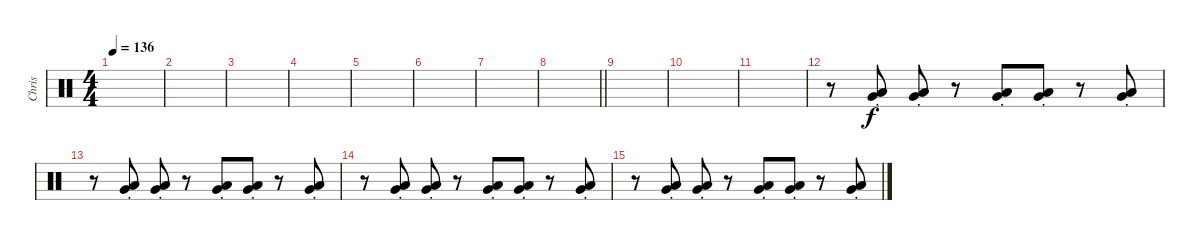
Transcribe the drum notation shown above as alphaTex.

\track ("Chris" "Chris") {instrument percussion}
\staff {score}
\articulation defaults
\ts (4 4)
\tempo 136
\clef neutral
\ks c
|
|
|
|
|
|
|
\barLineRight lightlight
|
|
|
|
r.8 ("Very Low Tom (hit)"{st} "Low Floor Tom (hit)"{st}).8 ("Very Low Tom (hit)"{st} "Low Floor Tom (hit)"{st}).8 r.8 ("Very Low Tom (hit)"{st} "Low Floor Tom (hit)"{st}).8 ("Very Low Tom (hit)"{st} "Low Floor Tom (hit)"{st}).8 r.8 ("Very Low Tom (hit)"{st} "Low Floor Tom (hit)"{st}).8 |
r.8 ("Very Low Tom (hit)"{st} "Low Floor Tom (hit)"{st}).8 ("Very Low Tom (hit)"{st} "Low Floor Tom (hit)"{st}).8 r.8 ("Very Low Tom (hit)"{st} "Low Floor Tom (hit)"{st}).8 ("Very Low Tom (hit)"{st} "Low Floor Tom (hit)"{st}).8 r.8 ("Very Low Tom (hit)"{st} "Low Floor Tom (hit)"{st}).8 |
r.8 ("Very Low Tom (hit)"{st} "Low Floor Tom (hit)"{st}).8 ("Very Low Tom (hit)"{st} "Low Floor Tom (hit)"{st}).8 r.8 ("Very Low Tom (hit)"{st} "Low Floor Tom (hit)"{st}).8 ("Very Low Tom (hit)"{st} "Low Floor Tom (hit)"{st}).8 r.8 ("Very Low Tom (hit)"{st} "Low Floor Tom (hit)"{st}).8 |
r.8 ("Very Low Tom (hit)"{st} "Low Floor Tom (hit)"{st}).8 ("Very Low Tom (hit)"{st} "Low Floor Tom (hit)"{st}).8 r.8 ("Very Low Tom (hit)"{st} "Low Floor Tom (hit)"{st}).8 ("Very Low Tom (hit)"{st} "Low Floor Tom (hit)"{st}).8 r.8 ("Very Low Tom (hit)"{st} "Low Floor Tom (hit)"{st}).8
